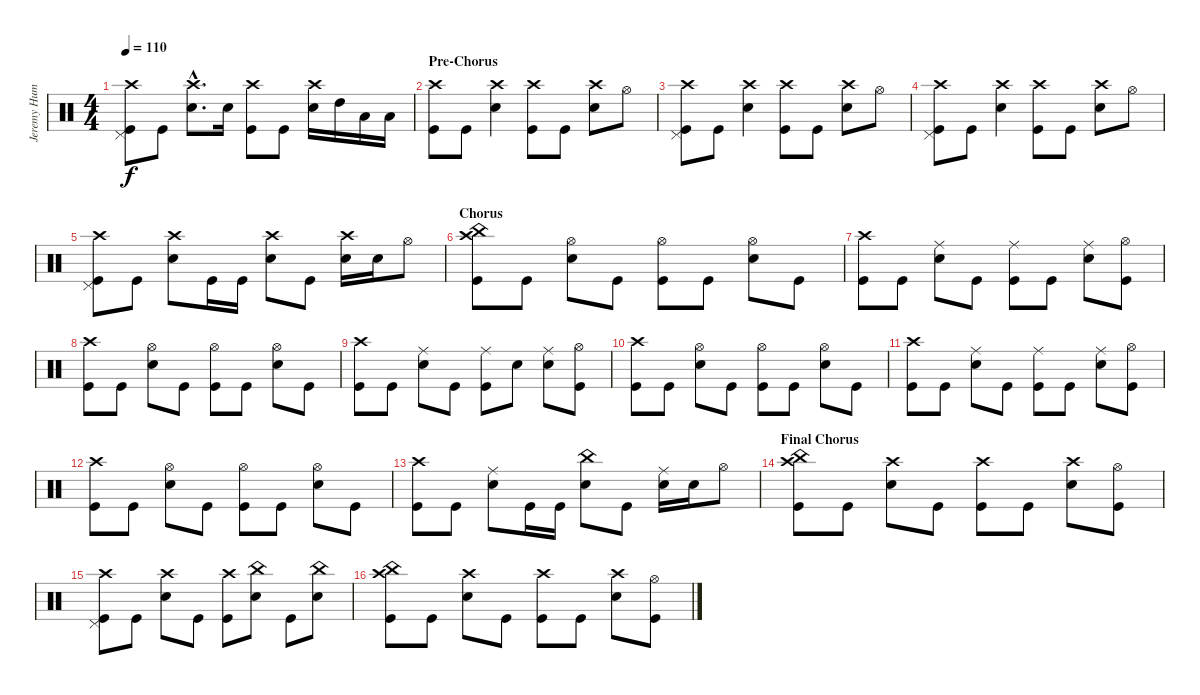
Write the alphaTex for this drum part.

\track ("Jeremy Hummel" "Jeremy Hum") {instrument percussion}
\staff {score}
\articulation defaults
\ts (4 4)
\tempo 110
\clef neutral
\ks c
("Crash high (hit)" "Pedal Hi-Hat (hit)" "Kick (hit)").8{dy f} "Kick (hit)".8 ("Crash high (hit)"{hac} "Electric Snare (hit)"{hac}).8{d} "Electric Snare (hit)".16 ("Crash high (hit)" "Kick (hit)").8 "Kick (hit)".8 ("Crash high (hit)" "Electric Snare (hit)").16 "High Tom (hit)".16 "Low Tom (hit)".16 "Low Floor Tom (hit)".16 |
\section ("" "Pre-Chorus")
("Crash high (hit)" "Kick (hit)").8 "Kick (hit)".8 ("Crash high (hit)" "Electric Snare (hit)").4 ("Crash high (hit)" "Kick (hit)").8 "Kick (hit)".8 ("Crash high (hit)" "Electric Snare (hit)").8 "Hi-Hat (open)".8 |
("Crash high (hit)" "Pedal Hi-Hat (hit)" "Kick (hit)").8 "Kick (hit)".8 ("Crash high (hit)" "Electric Snare (hit)").4 ("Crash high (hit)" "Kick (hit)").8 "Kick (hit)".8 ("Crash high (hit)" "Electric Snare (hit)").8 "Hi-Hat (open)".8 |
("Crash high (hit)" "Pedal Hi-Hat (hit)" "Kick (hit)").8 "Kick (hit)".8 ("Crash high (hit)" "Electric Snare (hit)").4 ("Crash high (hit)" "Kick (hit)").8 "Kick (hit)".8 ("Crash high (hit)" "Electric Snare (hit)").8 "Hi-Hat (open)".8 |
("Crash high (hit)" "Pedal Hi-Hat (hit)" "Kick (hit)").8 "Kick (hit)".8 ("Crash high (hit)" "Electric Snare (hit)").8 "Kick (hit)".16 "Kick (hit)".16 ("Crash high (hit)" "Electric Snare (hit)").8 "Kick (hit)".8 ("Crash high (hit)" "Electric Snare (hit)").16 "Electric Snare (hit)".16 "Hi-Hat (open)".8 |
\section ("" "Chorus")
("China (hit)" "Crash high (hit)" "Kick (hit)").8 "Kick (hit)".8 ("Hi-Hat (open)" "Electric Snare (hit)").8 "Kick (hit)".8 ("Hi-Hat (open)" "Kick (hit)").8 "Kick (hit)".8 ("Hi-Hat (open)" "Electric Snare (hit)").8 "Kick (hit)".8 |
("Crash high (hit)" "Kick (hit)").8 "Kick (hit)".8 ("Ride (middle)" "Electric Snare (hit)").8 "Kick (hit)".8 ("Ride (middle)" "Kick (hit)").8 "Kick (hit)".8 ("Ride (middle)" "Electric Snare (hit)").8 ("Hi-Hat (open)" "Kick (hit)").8 |
("Crash high (hit)" "Kick (hit)").8 "Kick (hit)".8 ("Hi-Hat (open)" "Electric Snare (hit)").8 "Kick (hit)".8 ("Hi-Hat (open)" "Kick (hit)").8 "Kick (hit)".8 ("Hi-Hat (open)" "Electric Snare (hit)").8 "Kick (hit)".8 |
("Crash high (hit)" "Kick (hit)").8 "Kick (hit)".8 ("Ride (middle)" "Electric Snare (hit)").8 "Kick (hit)".8 ("Ride (middle)" "Kick (hit)").8 "Electric Snare (hit)".8 ("Ride (middle)" "Electric Snare (hit)").8 ("Hi-Hat (open)" "Kick (hit)").8 |
("Crash high (hit)" "Kick (hit)").8 "Kick (hit)".8 ("Hi-Hat (open)" "Electric Snare (hit)").8 "Kick (hit)".8 ("Hi-Hat (open)" "Kick (hit)").8 "Kick (hit)".8 ("Hi-Hat (open)" "Electric Snare (hit)").8 "Kick (hit)".8 |
("Crash high (hit)" "Kick (hit)").8 "Kick (hit)".8 ("Ride (middle)" "Electric Snare (hit)").8 "Kick (hit)".8 ("Ride (middle)" "Kick (hit)").8 "Kick (hit)".8 ("Ride (middle)" "Electric Snare (hit)").8 ("Hi-Hat (open)" "Kick (hit)").8 |
("Crash high (hit)" "Kick (hit)").8 "Kick (hit)".8 ("Hi-Hat (open)" "Electric Snare (hit)").8 "Kick (hit)".8 ("Hi-Hat (open)" "Kick (hit)").8 "Kick (hit)".8 ("Hi-Hat (open)" "Electric Snare (hit)").8 "Kick (hit)".8 |
("Crash high (hit)" "Kick (hit)").8 "Kick (hit)".8 ("Ride (middle)" "Electric Snare (hit)").8 "Kick (hit)".16 "Kick (hit)".16 ("China (hit)" "Electric Snare (hit)").8 "Kick (hit)".8 ("Ride (middle)" "Electric Snare (hit)").16 "Electric Snare (hit)".16 "Hi-Hat (open)".8 |
\section ("" "Final Chorus")
("China (hit)" "Crash high (hit)" "Kick (hit)").8 "Kick (hit)".8 ("Crash high (hit)" "Electric Snare (hit)").8 "Kick (hit)".8 ("Crash high (hit)" "Kick (hit)").8 "Kick (hit)".8 ("Crash high (hit)" "Electric Snare (hit)").8 ("Hi-Hat (open)" "Kick (hit)").8 |
("Crash high (hit)" "Pedal Hi-Hat (hit)" "Kick (hit)").8 "Kick (hit)".8 ("Crash high (hit)" "Electric Snare (hit)").8 "Kick (hit)".8 ("Crash high (hit)" "Kick (hit)").8 ("China (hit)" "Electric Snare (hit)").8 "Kick (hit)".8 ("China (hit)" "Electric Snare (hit)").8 |
("China (hit)" "Crash high (hit)" "Kick (hit)").8 "Kick (hit)".8 ("Crash high (hit)" "Electric Snare (hit)").8 "Kick (hit)".8 ("Crash high (hit)" "Kick (hit)").8 "Kick (hit)".8 ("Crash high (hit)" "Electric Snare (hit)").8 ("Hi-Hat (open)" "Kick (hit)").8
